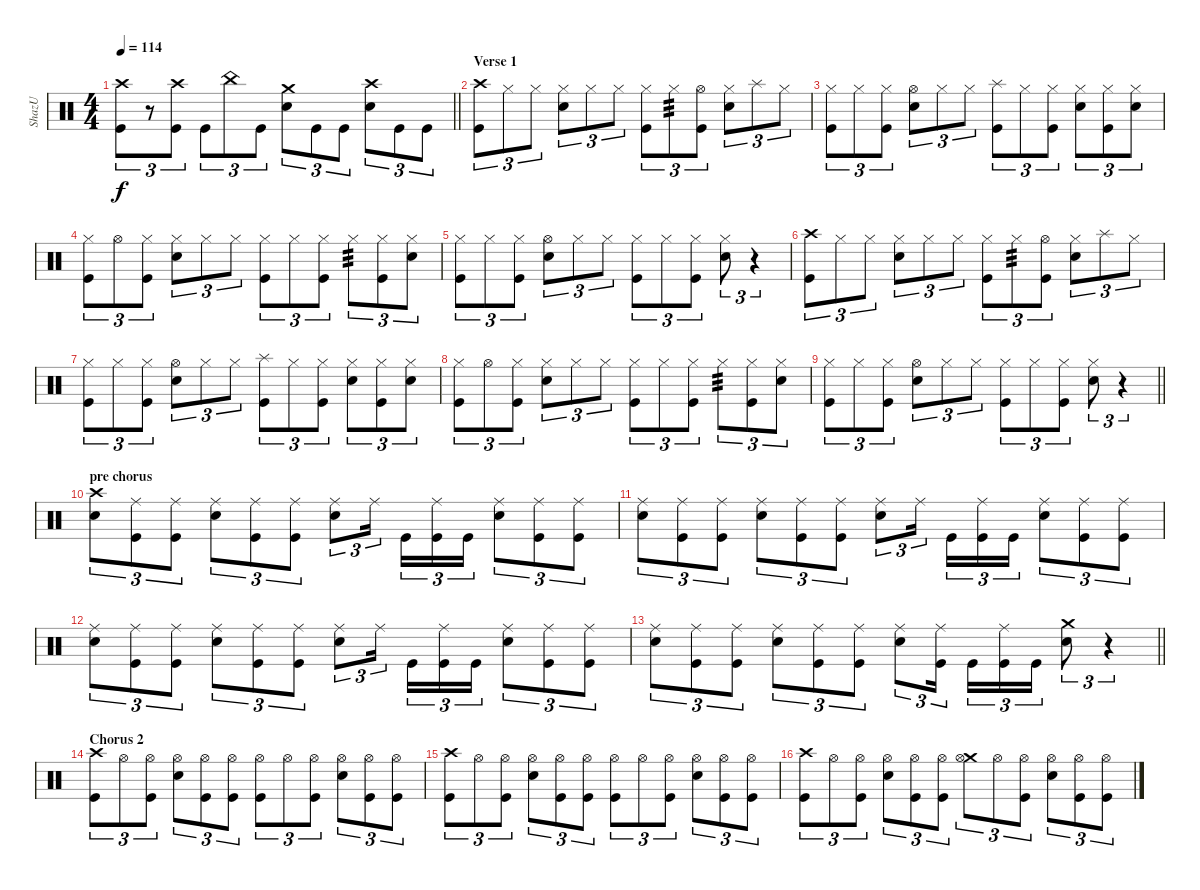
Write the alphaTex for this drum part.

\track ("ShazU" "ShazU") {instrument percussion}
\staff {score}
\articulation defaults
\ts (4 4)
\tempo 114
\clef neutral
\barLineRight lightlight
\ks c
("Kick (hit)" "Crash high (hit)").8{tu (3 2) dy f} r.8{tu (3 2)} ("Kick (hit)" "Crash high (hit)").8{tu (3 2)} "Kick (hit)".8{tu (3 2)} "China (hit)".8{tu (3 2)} "Kick (hit)".8{tu (3 2)} ("Snare (hit) 2" "Crash medium (hit)").8{tu (3 2)} "Kick (hit)".8{tu (3 2)} "Kick (hit)".8{tu (3 2)} ("Snare (hit) 2" "Crash high (hit)").8{tu (3 2)} "Kick (hit)".8{tu (3 2)} "Kick (hit)".8{tu (3 2)} |
\section ("" "Verse 1")
("Kick (hit)" "Crash high (hit)").8{tu (3 2)} "Hi-Hat (closed)".8{tu (3 2)} "Hi-Hat (closed)".8{tu (3 2)} ("Snare (hit) 2" "Hi-Hat (closed)").8{tu (3 2)} "Hi-Hat (closed)".8{tu (3 2)} "Hi-Hat (closed)".8{tu (3 2)} ("Kick (hit)" "Hi-Hat (closed)").8{tu (3 2)} "Hi-Hat (closed)".8{tu (3 2) tp 3} ("Kick (hit)" "Hi-Hat (open)").8{tu (3 2)} ("Snare (hit) 2" "Hi-Hat (closed)").8{tu (3 2)} "Splash (hit)".8{tu (3 2)} "Hi-Hat (closed)".8{tu (3 2)} |
("Kick (hit)" "Hi-Hat (closed)").8{tu (3 2)} "Hi-Hat (closed)".8{tu (3 2)} ("Kick (hit)" "Hi-Hat (closed)").8{tu (3 2)} ("Snare (hit) 2" "Hi-Hat (open)").8{tu (3 2)} "Hi-Hat (closed)".8{tu (3 2)} "Hi-Hat (closed)".8{tu (3 2)} ("Kick (hit)" "Splash (hit)").8{tu (3 2)} "Hi-Hat (closed)".8{tu (3 2)} ("Kick (hit)" "Hi-Hat (closed)").8{tu (3 2)} ("Snare (hit) 2" "Hi-Hat (closed)").8{tu (3 2)} ("Kick (hit)" "Hi-Hat (closed)").8{tu (3 2)} ("Snare (hit) 2" "Hi-Hat (closed)").8{tu (3 2)} |
("Kick (hit)" "Hi-Hat (closed)").8{tu (3 2)} "Hi-Hat (open)".8{tu (3 2)} ("Kick (hit)" "Hi-Hat (closed)").8{tu (3 2)} ("Snare (hit) 2" "Hi-Hat (closed)").8{tu (3 2)} "Hi-Hat (closed)".8{tu (3 2)} "Hi-Hat (closed)".8{tu (3 2)} ("Kick (hit)" "Hi-Hat (closed)").8{tu (3 2)} "Hi-Hat (closed)".8{tu (3 2)} ("Kick (hit)" "Hi-Hat (closed)").8{tu (3 2)} "Hi-Hat (closed)".8{tu (3 2) tp 3} ("Kick (hit)" "Hi-Hat (closed)").8{tu (3 2)} ("Snare (hit) 2" "Hi-Hat (closed)").8{tu (3 2)} |
("Kick (hit)" "Hi-Hat (closed)").8{tu (3 2)} "Hi-Hat (closed)".8{tu (3 2)} ("Kick (hit)" "Hi-Hat (closed)").8{tu (3 2)} ("Snare (hit) 2" "Hi-Hat (open)").8{tu (3 2)} "Hi-Hat (closed)".8{tu (3 2)} "Hi-Hat (closed)".8{tu (3 2)} ("Kick (hit)" "Hi-Hat (closed)").8{tu (3 2)} "Hi-Hat (closed)".8{tu (3 2)} ("Kick (hit)" "Hi-Hat (closed)").8{tu (3 2)} ("Snare (hit) 2" "Hi-Hat (closed)").8{tu (3 2)} r.4{tu (3 2)} |
("Kick (hit)" "Crash high (hit)").8{tu (3 2)} "Hi-Hat (closed)".8{tu (3 2)} "Hi-Hat (closed)".8{tu (3 2)} ("Snare (hit) 2" "Hi-Hat (closed)").8{tu (3 2)} "Hi-Hat (closed)".8{tu (3 2)} "Hi-Hat (closed)".8{tu (3 2)} ("Kick (hit)" "Hi-Hat (closed)").8{tu (3 2)} "Hi-Hat (closed)".8{tu (3 2) tp 3} ("Kick (hit)" "Hi-Hat (open)").8{tu (3 2)} ("Snare (hit) 2" "Hi-Hat (closed)").8{tu (3 2)} "Splash (hit)".8{tu (3 2)} "Hi-Hat (closed)".8{tu (3 2)} |
("Kick (hit)" "Hi-Hat (closed)").8{tu (3 2)} "Hi-Hat (closed)".8{tu (3 2)} ("Kick (hit)" "Hi-Hat (closed)").8{tu (3 2)} ("Snare (hit) 2" "Hi-Hat (open)").8{tu (3 2)} "Hi-Hat (closed)".8{tu (3 2)} "Hi-Hat (closed)".8{tu (3 2)} ("Kick (hit)" "Splash (hit)").8{tu (3 2)} "Hi-Hat (closed)".8{tu (3 2)} ("Kick (hit)" "Hi-Hat (closed)").8{tu (3 2)} ("Snare (hit) 2" "Hi-Hat (closed)").8{tu (3 2)} ("Kick (hit)" "Hi-Hat (closed)").8{tu (3 2)} ("Snare (hit) 2" "Hi-Hat (closed)").8{tu (3 2)} |
("Kick (hit)" "Hi-Hat (closed)").8{tu (3 2)} "Hi-Hat (open)".8{tu (3 2)} ("Kick (hit)" "Hi-Hat (closed)").8{tu (3 2)} ("Snare (hit) 2" "Hi-Hat (closed)").8{tu (3 2)} "Hi-Hat (closed)".8{tu (3 2)} "Hi-Hat (closed)".8{tu (3 2)} ("Kick (hit)" "Hi-Hat (closed)").8{tu (3 2)} "Hi-Hat (closed)".8{tu (3 2)} ("Kick (hit)" "Hi-Hat (closed)").8{tu (3 2)} "Hi-Hat (closed)".8{tu (3 2) tp 3} ("Kick (hit)" "Hi-Hat (closed)").8{tu (3 2)} ("Snare (hit) 2" "Hi-Hat (closed)").8{tu (3 2)} |
\barLineRight lightlight
("Kick (hit)" "Hi-Hat (closed)").8{tu (3 2)} "Hi-Hat (closed)".8{tu (3 2)} ("Kick (hit)" "Hi-Hat (closed)").8{tu (3 2)} ("Snare (hit) 2" "Hi-Hat (open)").8{tu (3 2)} "Hi-Hat (closed)".8{tu (3 2)} "Hi-Hat (closed)".8{tu (3 2)} ("Kick (hit)" "Hi-Hat (closed)").8{tu (3 2)} "Hi-Hat (closed)".8{tu (3 2)} ("Kick (hit)" "Hi-Hat (closed)").8{tu (3 2)} ("Snare (hit) 2" "Hi-Hat (closed)").8{tu (3 2)} r.4{tu (3 2)} |
\section ("" "pre chorus")
("Snare (hit) 2" "Crash high (hit)").8{tu (3 2)} ("Kick (hit)" "Ride (middle)").8{tu (3 2)} ("Kick (hit)" "Ride (middle)").8{tu (3 2)} ("Snare (hit) 2" "Ride (middle)").8{tu (3 2)} ("Kick (hit)" "Ride (middle)").8{tu (3 2)} ("Kick (hit)" "Ride (middle)").8{tu (3 2)} ("Snare (hit) 2" "Ride (middle)").8{tu (3 2)} "Ride (middle)".16{tu (3 2) beam splitsecondary} "Kick (hit)".16{tu (3 2)} ("Kick (hit)" "Ride (middle)").16{tu (3 2)} "Kick (hit)".16{tu (3 2)} ("Snare (hit) 2" "Ride (middle)").8{tu (3 2)} ("Kick (hit)" "Ride (middle)").8{tu (3 2)} ("Kick (hit)" "Ride (middle)").8{tu (3 2)} |
("Snare (hit) 2" "Ride (middle)").8{tu (3 2)} ("Kick (hit)" "Ride (middle)").8{tu (3 2)} ("Kick (hit)" "Ride (middle)").8{tu (3 2)} ("Snare (hit) 2" "Ride (middle)").8{tu (3 2)} ("Kick (hit)" "Ride (middle)").8{tu (3 2)} ("Kick (hit)" "Ride (middle)").8{tu (3 2)} ("Snare (hit) 2" "Ride (middle)").8{tu (3 2)} "Ride (middle)".16{tu (3 2) beam splitsecondary} "Kick (hit)".16{tu (3 2)} ("Kick (hit)" "Ride (middle)").16{tu (3 2)} "Kick (hit)".16{tu (3 2)} ("Snare (hit) 2" "Ride (middle)").8{tu (3 2)} ("Kick (hit)" "Ride (middle)").8{tu (3 2)} ("Kick (hit)" "Ride (middle)").8{tu (3 2)} |
("Snare (hit) 2" "Ride (middle)").8{tu (3 2)} ("Kick (hit)" "Ride (middle)").8{tu (3 2)} ("Kick (hit)" "Ride (middle)").8{tu (3 2)} ("Snare (hit) 2" "Ride (middle)").8{tu (3 2)} ("Kick (hit)" "Ride (middle)").8{tu (3 2)} ("Kick (hit)" "Ride (middle)").8{tu (3 2)} ("Snare (hit) 2" "Ride (middle)").8{tu (3 2)} "Ride (middle)".16{tu (3 2) beam splitsecondary} "Kick (hit)".16{tu (3 2)} ("Kick (hit)" "Ride (middle)").16{tu (3 2)} "Kick (hit)".16{tu (3 2)} ("Snare (hit) 2" "Ride (middle)").8{tu (3 2)} ("Kick (hit)" "Ride (middle)").8{tu (3 2)} ("Kick (hit)" "Ride (middle)").8{tu (3 2)} |
\barLineRight lightlight
("Snare (hit) 2" "Ride (middle)").8{tu (3 2)} ("Kick (hit)" "Ride (middle)").8{tu (3 2)} ("Kick (hit)" "Ride (middle)").8{tu (3 2)} ("Snare (hit) 2" "Ride (middle)").8{tu (3 2)} ("Kick (hit)" "Ride (middle)").8{tu (3 2)} ("Kick (hit)" "Ride (middle)").8{tu (3 2)} ("Snare (hit) 2" "Ride (middle)").8{tu (3 2)} ("Kick (hit)" "Ride (middle)").16{tu (3 2) beam splitsecondary} "Kick (hit)".16{tu (3 2)} ("Kick (hit)" "Ride (middle)").16{tu (3 2)} "Kick (hit)".16{tu (3 2)} ("Snare (hit) 2" "Crash medium (hit)").8{tu (3 2)} r.4{tu (3 2)} |
\section ("" "Chorus 2")
("Kick (hit)" "Crash high (hit)").8{tu (3 2)} "Hi-Hat (open)".8{tu (3 2)} ("Kick (hit)" "Hi-Hat (open)").8{tu (3 2)} ("Snare (hit) 2" "Hi-Hat (open)").8{tu (3 2)} ("Kick (hit)" "Hi-Hat (open)").8{tu (3 2)} ("Kick (hit)" "Hi-Hat (open)").8{tu (3 2)} ("Kick (hit)" "Hi-Hat (open)").8{tu (3 2)} "Hi-Hat (open)".8{tu (3 2)} ("Kick (hit)" "Hi-Hat (open)").8{tu (3 2)} ("Snare (hit) 2" "Hi-Hat (open)").8{tu (3 2)} ("Kick (hit)" "Hi-Hat (open)").8{tu (3 2)} ("Kick (hit)" "Hi-Hat (open)").8{tu (3 2)} |
("Kick (hit)" "Crash high (hit)").8{tu (3 2)} "Hi-Hat (open)".8{tu (3 2)} ("Kick (hit)" "Hi-Hat (open)").8{tu (3 2)} ("Snare (hit) 2" "Hi-Hat (open)").8{tu (3 2)} ("Kick (hit)" "Hi-Hat (open)").8{tu (3 2)} ("Kick (hit)" "Hi-Hat (open)").8{tu (3 2)} ("Kick (hit)" "Hi-Hat (open)").8{tu (3 2)} "Hi-Hat (open)".8{tu (3 2)} ("Kick (hit)" "Hi-Hat (open)").8{tu (3 2)} ("Snare (hit) 2" "Hi-Hat (open)").8{tu (3 2)} ("Kick (hit)" "Hi-Hat (open)").8{tu (3 2)} ("Kick (hit)" "Hi-Hat (open)").8{tu (3 2)} |
("Kick (hit)" "Crash high (hit)").8{tu (3 2)} "Hi-Hat (open)".8{tu (3 2)} ("Kick (hit)" "Hi-Hat (open)").8{tu (3 2)} ("Snare (hit) 2" "Hi-Hat (open)").8{tu (3 2)} ("Kick (hit)" "Hi-Hat (open)").8{tu (3 2)} ("Kick (hit)" "Hi-Hat (open)").8{tu (3 2)} ("Crash medium (hit)" "Hi-Hat (open)").8{tu (3 2)} "Hi-Hat (open)".8{tu (3 2)} ("Kick (hit)" "Hi-Hat (open)").8{tu (3 2)} ("Snare (hit) 2" "Hi-Hat (open)").8{tu (3 2)} ("Kick (hit)" "Hi-Hat (open)").8{tu (3 2)} ("Kick (hit)" "Hi-Hat (open)").8{tu (3 2)}
